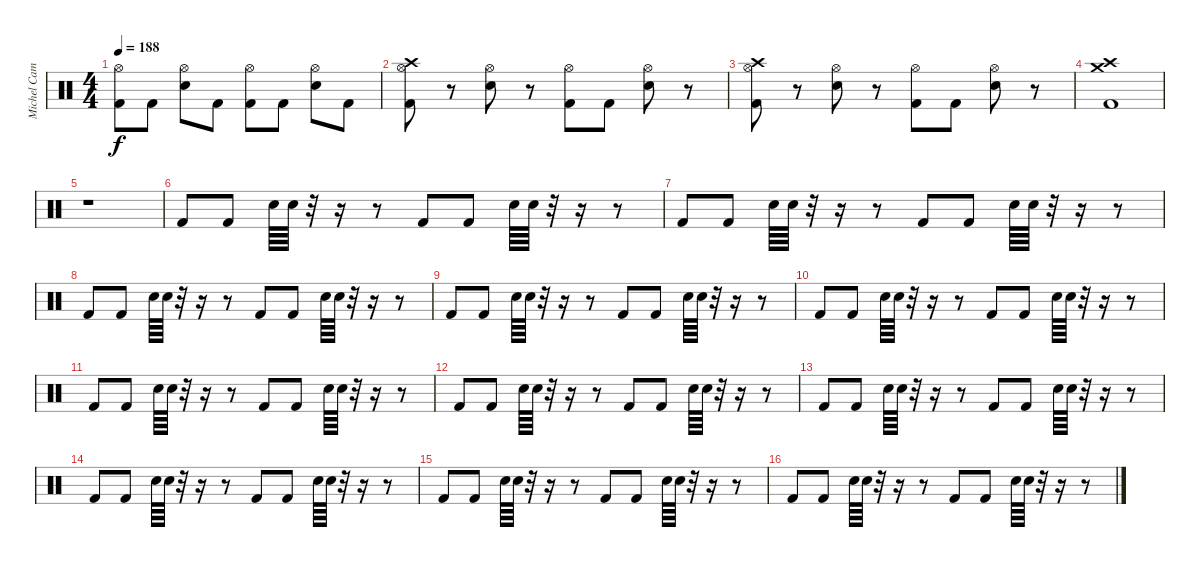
\track ("Michel Camiade" "Michel Cam") {instrument percussion}
\staff {score}
\articulation defaults
\ts (4 4)
\tempo 188
\clef neutral
\ks c
("Hi-Hat (open)" "Kick (hit) 2").8{dy f} "Kick (hit) 2".8 ("Hi-Hat (open)" "Snare (hit) 2").8 "Kick (hit) 2".8 ("Hi-Hat (open)" "Kick (hit) 2").8 "Kick (hit) 2".8 ("Hi-Hat (open)" "Snare (hit) 2").8 "Kick (hit) 2".8 |
("Crash high (hit)" "Hi-Hat (open)" "Kick (hit) 2").8 r.8 ("Hi-Hat (open)" "Snare (hit) 2").8 r.8 ("Hi-Hat (open)" "Kick (hit) 2").8 "Kick (hit) 2".8 ("Hi-Hat (open)" "Snare (hit) 2").8 r.8 |
("Crash high (hit)" "Hi-Hat (open)" "Kick (hit) 2").8 r.8 ("Hi-Hat (open)" "Snare (hit) 2").8 r.8 ("Hi-Hat (open)" "Kick (hit) 2").8 "Kick (hit) 2".8 ("Hi-Hat (open)" "Snare (hit) 2").8 r.8 |
("Crash high (hit)" "Crash medium (hit)" "Kick (hit) 2").1 |
r.1 |
"Kick (hit) 2".8 "Kick (hit) 2".8 "Snare (hit) 2".64 "Snare (hit) 2".64 r.32 r.16 r.8 "Kick (hit) 2".8 "Kick (hit) 2".8 "Snare (hit) 2".64 "Snare (hit) 2".64 r.32 r.16 r.8 |
"Kick (hit) 2".8 "Kick (hit) 2".8 "Snare (hit) 2".64 "Snare (hit) 2".64 r.32 r.16 r.8 "Kick (hit) 2".8 "Kick (hit) 2".8 "Snare (hit) 2".64 "Snare (hit) 2".64 r.32 r.16 r.8 |
"Kick (hit) 2".8 "Kick (hit) 2".8 "Snare (hit) 2".64 "Snare (hit) 2".64 r.32 r.16 r.8 "Kick (hit) 2".8 "Kick (hit) 2".8 "Snare (hit) 2".64 "Snare (hit) 2".64 r.32 r.16 r.8 |
"Kick (hit) 2".8 "Kick (hit) 2".8 "Snare (hit) 2".64 "Snare (hit) 2".64 r.32 r.16 r.8 "Kick (hit) 2".8 "Kick (hit) 2".8 "Snare (hit) 2".64 "Snare (hit) 2".64 r.32 r.16 r.8 |
"Kick (hit) 2".8 "Kick (hit) 2".8 "Snare (hit) 2".64 "Snare (hit) 2".64 r.32 r.16 r.8 "Kick (hit) 2".8 "Kick (hit) 2".8 "Snare (hit) 2".64 "Snare (hit) 2".64 r.32 r.16 r.8 |
"Kick (hit) 2".8 "Kick (hit) 2".8 "Snare (hit) 2".64 "Snare (hit) 2".64 r.32 r.16 r.8 "Kick (hit) 2".8 "Kick (hit) 2".8 "Snare (hit) 2".64 "Snare (hit) 2".64 r.32 r.16 r.8 |
"Kick (hit) 2".8 "Kick (hit) 2".8 "Snare (hit) 2".64 "Snare (hit) 2".64 r.32 r.16 r.8 "Kick (hit) 2".8 "Kick (hit) 2".8 "Snare (hit) 2".64 "Snare (hit) 2".64 r.32 r.16 r.8 |
"Kick (hit) 2".8 "Kick (hit) 2".8 "Snare (hit) 2".64 "Snare (hit) 2".64 r.32 r.16 r.8 "Kick (hit) 2".8 "Kick (hit) 2".8 "Snare (hit) 2".64 "Snare (hit) 2".64 r.32 r.16 r.8 |
"Kick (hit) 2".8 "Kick (hit) 2".8 "Snare (hit) 2".64 "Snare (hit) 2".64 r.32 r.16 r.8 "Kick (hit) 2".8 "Kick (hit) 2".8 "Snare (hit) 2".64 "Snare (hit) 2".64 r.32 r.16 r.8 |
"Kick (hit) 2".8 "Kick (hit) 2".8 "Snare (hit) 2".64 "Snare (hit) 2".64 r.32 r.16 r.8 "Kick (hit) 2".8 "Kick (hit) 2".8 "Snare (hit) 2".64 "Snare (hit) 2".64 r.32 r.16 r.8 |
"Kick (hit) 2".8 "Kick (hit) 2".8 "Snare (hit) 2".64 "Snare (hit) 2".64 r.32 r.16 r.8 "Kick (hit) 2".8 "Kick (hit) 2".8 "Snare (hit) 2".64 "Snare (hit) 2".64 r.32 r.16 r.8
